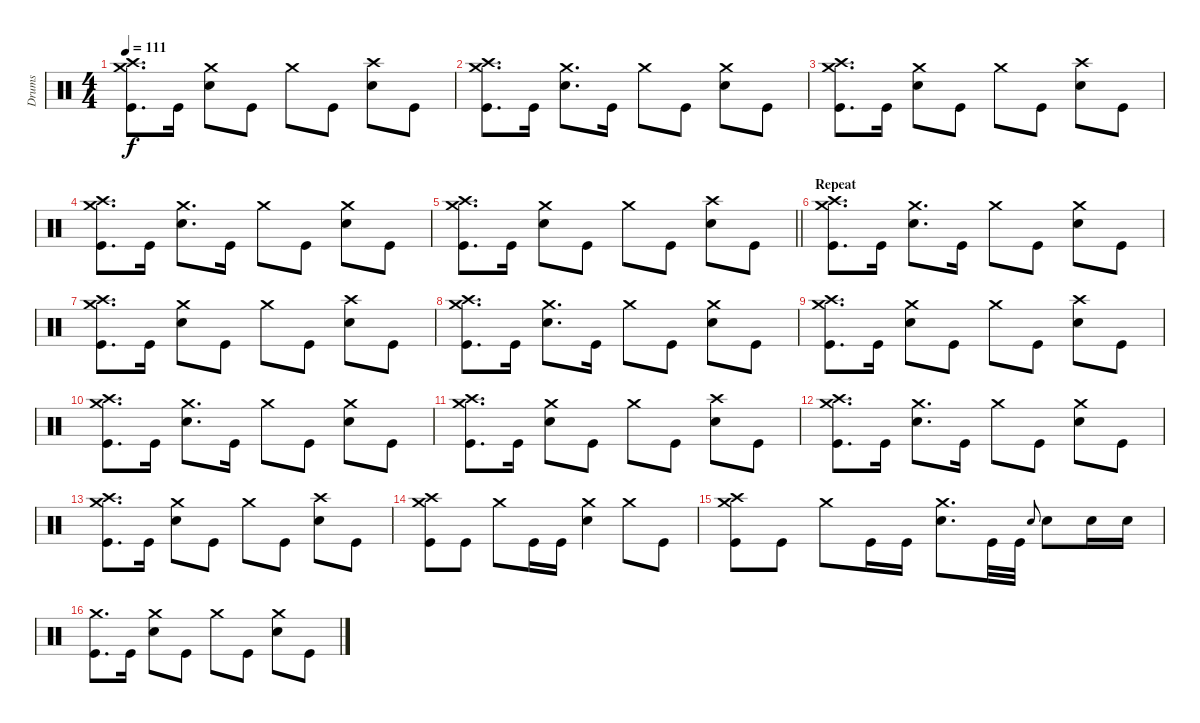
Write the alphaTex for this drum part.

\track ("Drums" "Drums") {instrument percussion}
\staff {score}
\articulation defaults
\ts (4 4)
\tempo 111
\clef neutral
\ks c
("Crash medium (hit)" "Crash high (hit)" "Kick (hit)").8{d dy f} "Kick (hit)".16 ("Crash medium (hit)" "Electric Snare (hit)").8 "Kick (hit)".8 "Crash medium (hit)".8 "Kick (hit)".8 ("Crash high (hit)" "Electric Snare (hit)").8 "Kick (hit)".8 |
("Crash medium (hit)" "Crash high (hit)" "Kick (hit)").8{d} "Kick (hit)".16 ("Crash medium (hit)" "Electric Snare (hit)").8{d} "Kick (hit)".16 "Crash medium (hit)".8 "Kick (hit)".8 ("Crash medium (hit)" "Electric Snare (hit)").8 "Kick (hit)".8 |
("Crash medium (hit)" "Crash high (hit)" "Kick (hit)").8{d} "Kick (hit)".16 ("Crash medium (hit)" "Electric Snare (hit)").8 "Kick (hit)".8 "Crash medium (hit)".8 "Kick (hit)".8 ("Crash high (hit)" "Electric Snare (hit)").8 "Kick (hit)".8 |
("Crash medium (hit)" "Crash high (hit)" "Kick (hit)").8{d} "Kick (hit)".16 ("Crash medium (hit)" "Electric Snare (hit)").8{d} "Kick (hit)".16 "Crash medium (hit)".8 "Kick (hit)".8 ("Crash medium (hit)" "Electric Snare (hit)").8 "Kick (hit)".8 |
\barLineRight lightlight
("Crash medium (hit)" "Crash high (hit)" "Kick (hit)").8{d} "Kick (hit)".16 ("Crash medium (hit)" "Electric Snare (hit)").8 "Kick (hit)".8 "Crash medium (hit)".8 "Kick (hit)".8 ("Crash high (hit)" "Electric Snare (hit)").8 "Kick (hit)".8 |
\section ("" "Repeat")
("Crash medium (hit)" "Crash high (hit)" "Kick (hit)").8{d} "Kick (hit)".16 ("Crash medium (hit)" "Electric Snare (hit)").8{d} "Kick (hit)".16 "Crash medium (hit)".8 "Kick (hit)".8 ("Crash medium (hit)" "Electric Snare (hit)").8 "Kick (hit)".8 |
("Crash medium (hit)" "Crash high (hit)" "Kick (hit)").8{d} "Kick (hit)".16 ("Crash medium (hit)" "Electric Snare (hit)").8 "Kick (hit)".8 "Crash medium (hit)".8 "Kick (hit)".8 ("Crash high (hit)" "Electric Snare (hit)").8 "Kick (hit)".8 |
("Crash medium (hit)" "Crash high (hit)" "Kick (hit)").8{d} "Kick (hit)".16 ("Crash medium (hit)" "Electric Snare (hit)").8{d} "Kick (hit)".16 "Crash medium (hit)".8 "Kick (hit)".8 ("Crash medium (hit)" "Electric Snare (hit)").8 "Kick (hit)".8 |
("Crash medium (hit)" "Crash high (hit)" "Kick (hit)").8{d} "Kick (hit)".16 ("Crash medium (hit)" "Electric Snare (hit)").8 "Kick (hit)".8 "Crash medium (hit)".8 "Kick (hit)".8 ("Crash high (hit)" "Electric Snare (hit)").8 "Kick (hit)".8 |
("Crash medium (hit)" "Crash high (hit)" "Kick (hit)").8{d} "Kick (hit)".16 ("Crash medium (hit)" "Electric Snare (hit)").8{d} "Kick (hit)".16 "Crash medium (hit)".8 "Kick (hit)".8 ("Crash medium (hit)" "Electric Snare (hit)").8 "Kick (hit)".8 |
("Crash medium (hit)" "Crash high (hit)" "Kick (hit)").8{d} "Kick (hit)".16 ("Crash medium (hit)" "Electric Snare (hit)").8 "Kick (hit)".8 "Crash medium (hit)".8 "Kick (hit)".8 ("Crash high (hit)" "Electric Snare (hit)").8 "Kick (hit)".8 |
("Crash medium (hit)" "Crash high (hit)" "Kick (hit)").8{d} "Kick (hit)".16 ("Crash medium (hit)" "Electric Snare (hit)").8{d} "Kick (hit)".16 "Crash medium (hit)".8 "Kick (hit)".8 ("Crash medium (hit)" "Electric Snare (hit)").8 "Kick (hit)".8 |
("Crash medium (hit)" "Crash high (hit)" "Kick (hit)").8{d} "Kick (hit)".16 ("Crash medium (hit)" "Electric Snare (hit)").8 "Kick (hit)".8 "Crash medium (hit)".8 "Kick (hit)".8 ("Crash high (hit)" "Electric Snare (hit)").8 "Kick (hit)".8 |
("Crash medium (hit)" "Crash high (hit)" "Kick (hit)").8 "Kick (hit)".8 "Crash medium (hit)".8 "Kick (hit)".16 "Kick (hit)".16 ("Crash medium (hit)" "Electric Snare (hit)").4 "Crash medium (hit)".8 "Kick (hit)".8 |
("Crash medium (hit)" "Crash high (hit)" "Kick (hit)").8 "Kick (hit)".8 "Crash medium (hit)".8 "Kick (hit)".16 "Kick (hit)".16 ("Crash medium (hit)" "Electric Snare (hit)").8{d} "Kick (hit)".32 "Kick (hit)".32 "Electric Snare (hit)".8{gr onbeat} "Electric Snare (hit)".8 "Electric Snare (hit)".16 "Electric Snare (hit)".16 |
("Crash medium (hit)" "Kick (hit)").8{d} "Kick (hit)".16 ("Crash medium (hit)" "Electric Snare (hit)").8 "Kick (hit)".8 "Crash medium (hit)".8 "Kick (hit)".8 ("Crash medium (hit)" "Electric Snare (hit)").8 "Kick (hit)".8
